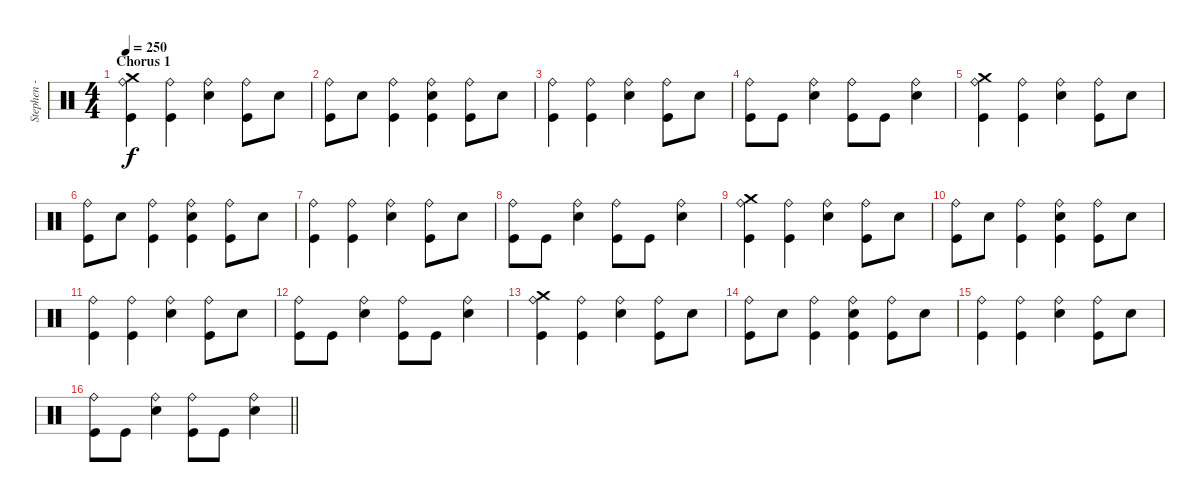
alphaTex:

\track ("Stephen - Drums" "Stephen - ") {instrument percussion}
\staff {score}
\articulation defaults
\ts (4 4)
\section ("" "Chorus 1")
\tempo 250
\clef neutral
\ks c
("Crash medium (hit)" "Ride (bell)" "Kick (hit)").4{dy f} ("Ride (bell)" "Kick (hit)").4 ("Snare (hit) 2" "Ride (bell)").4 ("Ride (bell)" "Kick (hit)").8 "Snare (hit) 2".8 |
("Ride (bell)" "Kick (hit)").8 "Snare (hit) 2".8 ("Ride (bell)" "Kick (hit)").4 ("Snare (hit) 2" "Ride (bell)" "Kick (hit)").4 ("Ride (bell)" "Kick (hit)").8 "Snare (hit) 2".8 |
("Ride (bell)" "Kick (hit)").4 ("Ride (bell)" "Kick (hit)").4 ("Snare (hit) 2" "Ride (bell)").4 ("Ride (bell)" "Kick (hit)").8 "Snare (hit) 2".8 |
("Ride (bell)" "Kick (hit)").8 "Kick (hit)".8 ("Snare (hit) 2" "Ride (bell)").4 ("Ride (bell)" "Kick (hit)").8 "Kick (hit)".8 ("Snare (hit) 2" "Ride (bell)").4 |
("Crash medium (hit)" "Ride (bell)" "Kick (hit)").4 ("Ride (bell)" "Kick (hit)").4 ("Snare (hit) 2" "Ride (bell)").4 ("Ride (bell)" "Kick (hit)").8 "Snare (hit) 2".8 |
("Ride (bell)" "Kick (hit)").8 "Snare (hit) 2".8 ("Ride (bell)" "Kick (hit)").4 ("Snare (hit) 2" "Ride (bell)" "Kick (hit)").4 ("Ride (bell)" "Kick (hit)").8 "Snare (hit) 2".8 |
("Ride (bell)" "Kick (hit)").4 ("Ride (bell)" "Kick (hit)").4 ("Snare (hit) 2" "Ride (bell)").4 ("Ride (bell)" "Kick (hit)").8 "Snare (hit) 2".8 |
("Ride (bell)" "Kick (hit)").8 "Kick (hit)".8 ("Snare (hit) 2" "Ride (bell)").4 ("Ride (bell)" "Kick (hit)").8 "Kick (hit)".8 ("Snare (hit) 2" "Ride (bell)").4 |
("Crash medium (hit)" "Ride (bell)" "Kick (hit)").4 ("Ride (bell)" "Kick (hit)").4 ("Snare (hit) 2" "Ride (bell)").4 ("Ride (bell)" "Kick (hit)").8 "Snare (hit) 2".8 |
("Ride (bell)" "Kick (hit)").8 "Snare (hit) 2".8 ("Ride (bell)" "Kick (hit)").4 ("Snare (hit) 2" "Ride (bell)" "Kick (hit)").4 ("Ride (bell)" "Kick (hit)").8 "Snare (hit) 2".8 |
("Ride (bell)" "Kick (hit)").4 ("Ride (bell)" "Kick (hit)").4 ("Snare (hit) 2" "Ride (bell)").4 ("Ride (bell)" "Kick (hit)").8 "Snare (hit) 2".8 |
("Ride (bell)" "Kick (hit)").8 "Kick (hit)".8 ("Snare (hit) 2" "Ride (bell)").4 ("Ride (bell)" "Kick (hit)").8 "Kick (hit)".8 ("Snare (hit) 2" "Ride (bell)").4 |
("Crash medium (hit)" "Ride (bell)" "Kick (hit)").4 ("Ride (bell)" "Kick (hit)").4 ("Snare (hit) 2" "Ride (bell)").4 ("Ride (bell)" "Kick (hit)").8 "Snare (hit) 2".8 |
("Ride (bell)" "Kick (hit)").8 "Snare (hit) 2".8 ("Ride (bell)" "Kick (hit)").4 ("Snare (hit) 2" "Ride (bell)" "Kick (hit)").4 ("Ride (bell)" "Kick (hit)").8 "Snare (hit) 2".8 |
("Ride (bell)" "Kick (hit)").4 ("Ride (bell)" "Kick (hit)").4 ("Snare (hit) 2" "Ride (bell)").4 ("Ride (bell)" "Kick (hit)").8 "Snare (hit) 2".8 |
\barLineRight lightlight
("Ride (bell)" "Kick (hit)").8 "Kick (hit)".8 ("Snare (hit) 2" "Ride (bell)").4 ("Ride (bell)" "Kick (hit)").8 "Kick (hit)".8 ("Snare (hit) 2" "Ride (bell)").4
